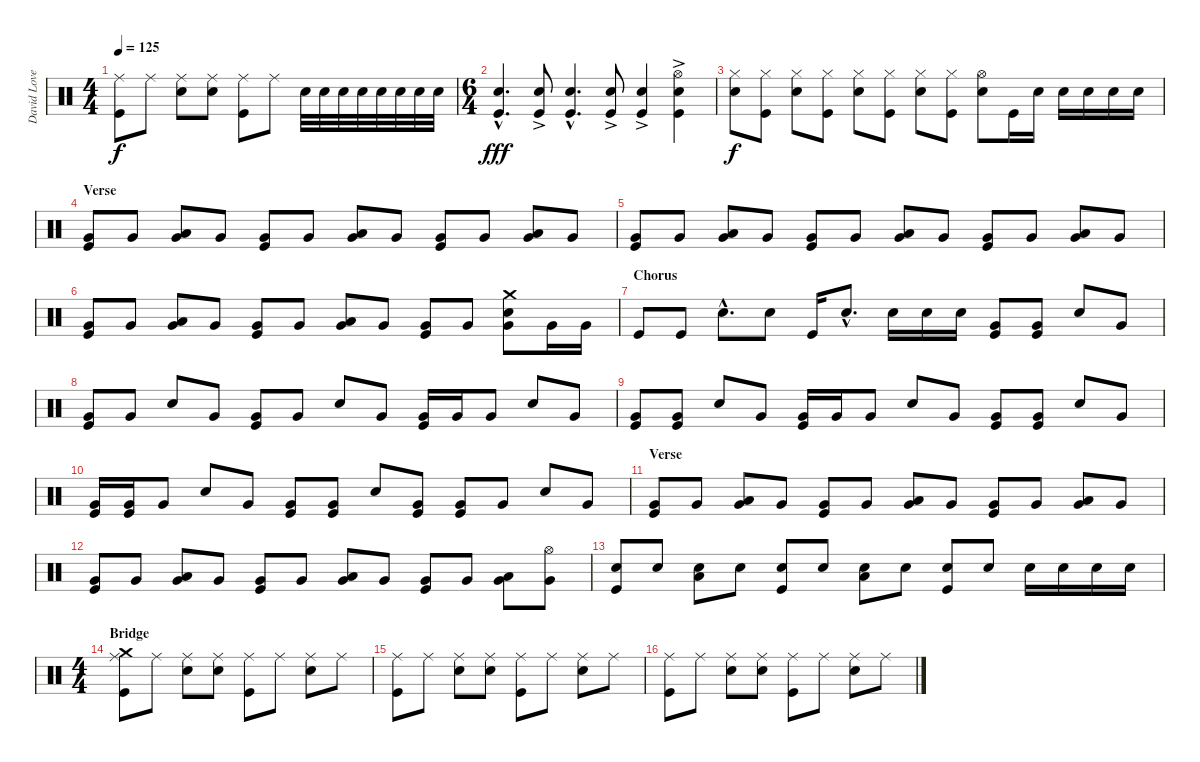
\track ("David Lovering" "David Love") {instrument percussion}
\staff {score}
\articulation defaults
\ts (4 4)
\tempo 125
\clef neutral
\ks c
("Ride (middle)" "Kick (hit)").8{dy f} "Ride (middle)".8 ("Ride (middle)" "Snare (hit) 2").8 ("Ride (middle)" "Snare (hit) 2").8 ("Ride (middle)" "Kick (hit)").8 "Ride (middle)".8 "Snare (hit) 2".32 "Snare (hit) 2".32 "Snare (hit) 2".32 "Snare (hit) 2".32 "Snare (hit) 2".32 "Snare (hit) 2".32 "Snare (hit) 2".32 "Snare (hit) 2".32 |
\ts (6 4)
("Snare (hit) 2"{hac} "Kick (hit)"{hac}).4{d dy fff} ("Snare (hit) 2"{ac} "Kick (hit)").8 ("Snare (hit) 2"{hac} "Kick (hit)"{hac}).4{d} ("Snare (hit) 2"{ac} "Kick (hit)").8 ("Snare (hit) 2"{ac} "Kick (hit)").4 ("Hi-Hat (open)"{ac} "Snare (hit) 2"{ac} "Kick (hit)").4 |
("Hi-Hat (closed)" "Snare (hit) 2").8{dy f} ("Hi-Hat (closed)" "Kick (hit)").8 ("Hi-Hat (closed)" "Snare (hit) 2").8 ("Hi-Hat (closed)" "Kick (hit)").8 ("Hi-Hat (closed)" "Snare (hit) 2").8 ("Hi-Hat (closed)" "Kick (hit)").8 ("Hi-Hat (closed)" "Snare (hit) 2").8 ("Hi-Hat (closed)" "Kick (hit)").8 ("Hi-Hat (open)" "Snare (hit) 2").8 "Kick (hit)".16 "Snare (hit) 2".16 "Snare (hit) 2".16 "Snare (hit) 2".16 "Snare (hit) 2".16 "Snare (hit) 2".16 |
\section ("" "Verse")
("Very Low Tom (hit)" "Kick (hit)").8 "Very Low Tom (hit)".8 ("Low Tom (hit)" "Very Low Tom (hit)").8 "Very Low Tom (hit)".8 ("Very Low Tom (hit)" "Kick (hit)").8 "Very Low Tom (hit)".8 ("Low Tom (hit)" "Very Low Tom (hit)").8 "Very Low Tom (hit)".8 ("Very Low Tom (hit)" "Kick (hit)").8 "Very Low Tom (hit)".8 ("Low Tom (hit)" "Very Low Tom (hit)").8 "Very Low Tom (hit)".8 |
("Very Low Tom (hit)" "Kick (hit)").8 "Very Low Tom (hit)".8 ("Low Tom (hit)" "Very Low Tom (hit)").8 "Very Low Tom (hit)".8 ("Very Low Tom (hit)" "Kick (hit)").8 "Very Low Tom (hit)".8 ("Low Tom (hit)" "Very Low Tom (hit)").8 "Very Low Tom (hit)".8 ("Very Low Tom (hit)" "Kick (hit)").8 "Very Low Tom (hit)".8 ("Low Tom (hit)" "Very Low Tom (hit)").8 "Very Low Tom (hit)".8 |
("Very Low Tom (hit)" "Kick (hit)").8 "Very Low Tom (hit)".8 ("Low Tom (hit)" "Very Low Tom (hit)").8 "Very Low Tom (hit)".8 ("Very Low Tom (hit)" "Kick (hit)").8 "Very Low Tom (hit)".8 ("Low Tom (hit)" "Very Low Tom (hit)").8 "Very Low Tom (hit)".8 ("Very Low Tom (hit)" "Kick (hit)").8 "Very Low Tom (hit)".8 ("Crash medium (hit)" "Snare (hit) 2" "Very Low Tom (hit)").8 "Very Low Tom (hit)".16 "Very Low Tom (hit)".16 |
\section ("" "Chorus")
"Kick (hit)".8 "Kick (hit)".8 "Snare (hit) 2"{hac}.8{d} "Snare (hit) 2".8 "Kick (hit)".16 "Snare (hit) 2"{hac}.8{d} "Snare (hit) 2".16 "Snare (hit) 2".16 "Snare (hit) 2".16 ("Very Low Tom (hit)" "Kick (hit)").8 ("Very Low Tom (hit)" "Kick (hit)").8 "Snare (hit) 2".8 "Very Low Tom (hit)".8 |
("Very Low Tom (hit)" "Kick (hit)").8 "Very Low Tom (hit)".8 "Snare (hit) 2".8 "Very Low Tom (hit)".8 ("Very Low Tom (hit)" "Kick (hit)").8 "Very Low Tom (hit)".8 "Snare (hit) 2".8 "Very Low Tom (hit)".8 ("Very Low Tom (hit)" "Kick (hit)").16 "Very Low Tom (hit)".16 "Very Low Tom (hit)".8 "Snare (hit) 2".8 "Very Low Tom (hit)".8 |
("Very Low Tom (hit)" "Kick (hit)").8 ("Very Low Tom (hit)" "Kick (hit)").8 "Snare (hit) 2".8 "Very Low Tom (hit)".8 ("Very Low Tom (hit)" "Kick (hit)").16 "Very Low Tom (hit)".16 "Very Low Tom (hit)".8 "Snare (hit) 2".8 "Very Low Tom (hit)".8 ("Very Low Tom (hit)" "Kick (hit)").8 ("Very Low Tom (hit)" "Kick (hit)").8 "Snare (hit) 2".8 "Very Low Tom (hit)".8 |
("Very Low Tom (hit)" "Kick (hit)").16 ("Very Low Tom (hit)" "Kick (hit)").16 "Very Low Tom (hit)".8 "Snare (hit) 2".8 "Very Low Tom (hit)".8 ("Very Low Tom (hit)" "Kick (hit)").8 ("Very Low Tom (hit)" "Kick (hit)").8 "Snare (hit) 2".8 ("Very Low Tom (hit)" "Kick (hit)").8 ("Very Low Tom (hit)" "Kick (hit)").8 "Very Low Tom (hit)".8 "Snare (hit) 2".8 "Very Low Tom (hit)".8 |
\section ("" "Verse")
("Very Low Tom (hit)" "Kick (hit)").8 "Very Low Tom (hit)".8 ("Low Tom (hit)" "Very Low Tom (hit)").8 "Very Low Tom (hit)".8 ("Very Low Tom (hit)" "Kick (hit)").8 "Very Low Tom (hit)".8 ("Low Tom (hit)" "Very Low Tom (hit)").8 "Very Low Tom (hit)".8 ("Very Low Tom (hit)" "Kick (hit)").8 "Very Low Tom (hit)".8 ("Low Tom (hit)" "Very Low Tom (hit)").8 "Very Low Tom (hit)".8 |
("Very Low Tom (hit)" "Kick (hit)").8 "Very Low Tom (hit)".8 ("Low Tom (hit)" "Very Low Tom (hit)").8 "Very Low Tom (hit)".8 ("Very Low Tom (hit)" "Kick (hit)").8 "Very Low Tom (hit)".8 ("Low Tom (hit)" "Very Low Tom (hit)").8 "Very Low Tom (hit)".8 ("Very Low Tom (hit)" "Kick (hit)").8 "Very Low Tom (hit)".8 ("Low Tom (hit)" "Very Low Tom (hit)").8 ("Hi-Hat (open)" "Very Low Tom (hit)").8 |
("Snare (hit) 2" "Kick (hit)").8{volume 15} "Snare (hit) 2".8 ("Low Tom (hit)" "Snare (hit) 2").8 "Snare (hit) 2".8 ("Snare (hit) 2" "Kick (hit)").8 "Snare (hit) 2".8 ("Low Tom (hit)" "Snare (hit) 2").8 "Snare (hit) 2".8 ("Snare (hit) 2" "Kick (hit)").8 "Snare (hit) 2".8 "Snare (hit) 2".16 "Snare (hit) 2".16 "Snare (hit) 2".16 "Snare (hit) 2".16 |
\ts (4 4)
\section ("" "Bridge")
("Ride (middle)" "Crash medium (hit)" "Kick (hit)").8 "Ride (middle)".8 ("Ride (middle)" "Snare (hit) 2").8 ("Ride (middle)" "Snare (hit) 2").8 ("Ride (middle)" "Kick (hit)").8 "Ride (middle)".8 ("Ride (middle)" "Snare (hit) 2").8 "Ride (middle)".8 |
("Ride (middle)" "Kick (hit)").8 "Ride (middle)".8 ("Ride (middle)" "Snare (hit) 2").8 ("Ride (middle)" "Snare (hit) 2").8 ("Ride (middle)" "Kick (hit)").8 "Ride (middle)".8 ("Ride (middle)" "Snare (hit) 2").8 "Ride (middle)".8 |
("Ride (middle)" "Kick (hit)").8 "Ride (middle)".8 ("Ride (middle)" "Snare (hit) 2").8 ("Ride (middle)" "Snare (hit) 2").8 ("Ride (middle)" "Kick (hit)").8 "Ride (middle)".8 ("Ride (middle)" "Snare (hit) 2").8 "Ride (middle)".8
